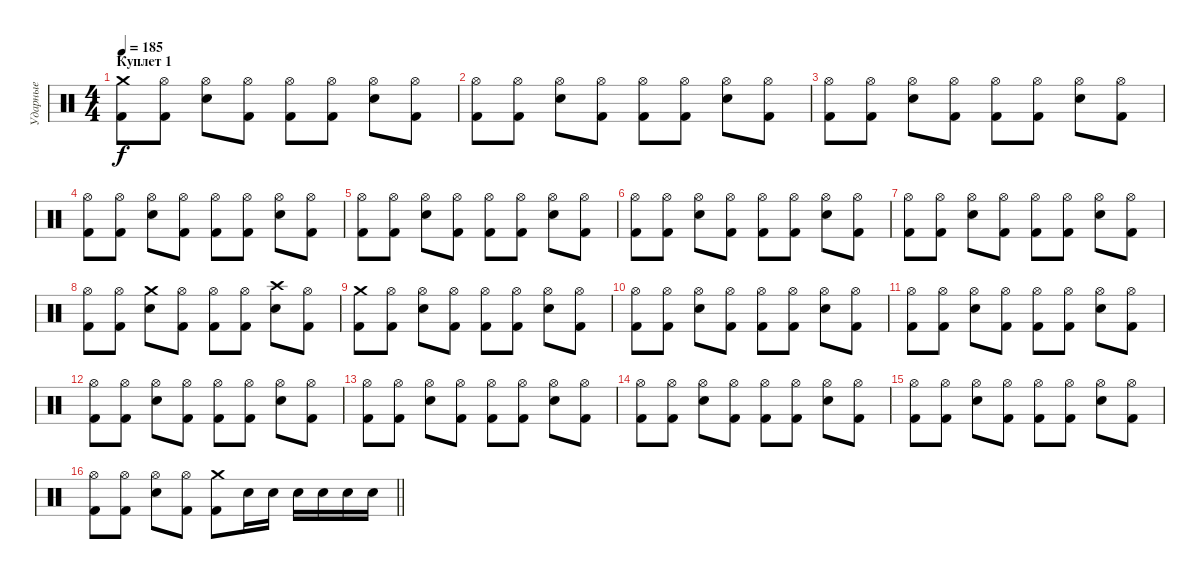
\track ("Ударные" "Ударные") {instrument percussion}
\staff {score}
\articulation defaults
\ts (4 4)
\section ("" "Куплет 1")
\tempo 185
\clef neutral
\ks c
("Crash medium (hit)" "Kick (hit) 2").8{dy f} ("Hi-Hat (open)" "Kick (hit) 2").8 ("Hi-Hat (open)" "Electric Snare (hit)").8 ("Hi-Hat (open)" "Kick (hit) 2").8 ("Hi-Hat (open)" "Kick (hit) 2").8 ("Hi-Hat (open)" "Kick (hit) 2").8 ("Hi-Hat (open)" "Electric Snare (hit)").8 ("Hi-Hat (open)" "Kick (hit) 2").8 |
("Hi-Hat (open)" "Kick (hit) 2").8 ("Hi-Hat (open)" "Kick (hit) 2").8 ("Hi-Hat (open)" "Electric Snare (hit)").8 ("Hi-Hat (open)" "Kick (hit) 2").8 ("Hi-Hat (open)" "Kick (hit) 2").8 ("Hi-Hat (open)" "Kick (hit) 2").8 ("Hi-Hat (open)" "Electric Snare (hit)").8 ("Hi-Hat (open)" "Kick (hit) 2").8 |
("Hi-Hat (open)" "Kick (hit) 2").8 ("Hi-Hat (open)" "Kick (hit) 2").8 ("Hi-Hat (open)" "Electric Snare (hit)").8 ("Hi-Hat (open)" "Kick (hit) 2").8 ("Hi-Hat (open)" "Kick (hit) 2").8 ("Hi-Hat (open)" "Kick (hit) 2").8 ("Hi-Hat (open)" "Electric Snare (hit)").8 ("Hi-Hat (open)" "Kick (hit) 2").8 |
("Hi-Hat (open)" "Kick (hit) 2").8 ("Hi-Hat (open)" "Kick (hit) 2").8 ("Hi-Hat (open)" "Electric Snare (hit)").8 ("Hi-Hat (open)" "Kick (hit) 2").8 ("Hi-Hat (open)" "Kick (hit) 2").8 ("Hi-Hat (open)" "Kick (hit) 2").8 ("Hi-Hat (open)" "Electric Snare (hit)").8 ("Hi-Hat (open)" "Kick (hit) 2").8 |
("Hi-Hat (open)" "Kick (hit) 2").8 ("Hi-Hat (open)" "Kick (hit) 2").8 ("Hi-Hat (open)" "Electric Snare (hit)").8 ("Hi-Hat (open)" "Kick (hit) 2").8 ("Hi-Hat (open)" "Kick (hit) 2").8 ("Hi-Hat (open)" "Kick (hit) 2").8 ("Hi-Hat (open)" "Electric Snare (hit)").8 ("Hi-Hat (open)" "Kick (hit) 2").8 |
("Hi-Hat (open)" "Kick (hit) 2").8 ("Hi-Hat (open)" "Kick (hit) 2").8 ("Hi-Hat (open)" "Electric Snare (hit)").8 ("Hi-Hat (open)" "Kick (hit) 2").8 ("Hi-Hat (open)" "Kick (hit) 2").8 ("Hi-Hat (open)" "Kick (hit) 2").8 ("Hi-Hat (open)" "Electric Snare (hit)").8 ("Hi-Hat (open)" "Kick (hit) 2").8 |
("Hi-Hat (open)" "Kick (hit) 2").8 ("Hi-Hat (open)" "Kick (hit) 2").8 ("Hi-Hat (open)" "Electric Snare (hit)").8 ("Hi-Hat (open)" "Kick (hit) 2").8 ("Hi-Hat (open)" "Kick (hit) 2").8 ("Hi-Hat (open)" "Kick (hit) 2").8 ("Hi-Hat (open)" "Electric Snare (hit)").8 ("Hi-Hat (open)" "Kick (hit) 2").8 |
("Hi-Hat (open)" "Kick (hit) 2").8 ("Hi-Hat (open)" "Kick (hit) 2").8 ("Crash medium (hit)" "Electric Snare (hit)").8 ("Hi-Hat (open)" "Kick (hit) 2").8 ("Hi-Hat (open)" "Kick (hit) 2").8 ("Hi-Hat (open)" "Kick (hit) 2").8 ("Crash high (hit)" "Electric Snare (hit)").8 ("Hi-Hat (open)" "Kick (hit) 2").8 |
("Crash medium (hit)" "Kick (hit) 2").8 ("Hi-Hat (open)" "Kick (hit) 2").8 ("Hi-Hat (open)" "Electric Snare (hit)").8 ("Hi-Hat (open)" "Kick (hit) 2").8 ("Hi-Hat (open)" "Kick (hit) 2").8 ("Hi-Hat (open)" "Kick (hit) 2").8 ("Hi-Hat (open)" "Electric Snare (hit)").8 ("Hi-Hat (open)" "Kick (hit) 2").8 |
("Hi-Hat (open)" "Kick (hit) 2").8 ("Hi-Hat (open)" "Kick (hit) 2").8 ("Hi-Hat (open)" "Electric Snare (hit)").8 ("Hi-Hat (open)" "Kick (hit) 2").8 ("Hi-Hat (open)" "Kick (hit) 2").8 ("Hi-Hat (open)" "Kick (hit) 2").8 ("Hi-Hat (open)" "Electric Snare (hit)").8 ("Hi-Hat (open)" "Kick (hit) 2").8 |
("Hi-Hat (open)" "Kick (hit) 2").8 ("Hi-Hat (open)" "Kick (hit) 2").8 ("Hi-Hat (open)" "Electric Snare (hit)").8 ("Hi-Hat (open)" "Kick (hit) 2").8 ("Hi-Hat (open)" "Kick (hit) 2").8 ("Hi-Hat (open)" "Kick (hit) 2").8 ("Hi-Hat (open)" "Electric Snare (hit)").8 ("Hi-Hat (open)" "Kick (hit) 2").8 |
("Hi-Hat (open)" "Kick (hit) 2").8 ("Hi-Hat (open)" "Kick (hit) 2").8 ("Hi-Hat (open)" "Electric Snare (hit)").8 ("Hi-Hat (open)" "Kick (hit) 2").8 ("Hi-Hat (open)" "Kick (hit) 2").8 ("Hi-Hat (open)" "Kick (hit) 2").8 ("Hi-Hat (open)" "Electric Snare (hit)").8 ("Hi-Hat (open)" "Kick (hit) 2").8 |
("Hi-Hat (open)" "Kick (hit) 2").8 ("Hi-Hat (open)" "Kick (hit) 2").8 ("Hi-Hat (open)" "Electric Snare (hit)").8 ("Hi-Hat (open)" "Kick (hit) 2").8 ("Hi-Hat (open)" "Kick (hit) 2").8 ("Hi-Hat (open)" "Kick (hit) 2").8 ("Hi-Hat (open)" "Electric Snare (hit)").8 ("Hi-Hat (open)" "Kick (hit) 2").8 |
("Hi-Hat (open)" "Kick (hit) 2").8 ("Hi-Hat (open)" "Kick (hit) 2").8 ("Hi-Hat (open)" "Electric Snare (hit)").8 ("Hi-Hat (open)" "Kick (hit) 2").8 ("Hi-Hat (open)" "Kick (hit) 2").8 ("Hi-Hat (open)" "Kick (hit) 2").8 ("Hi-Hat (open)" "Electric Snare (hit)").8 ("Hi-Hat (open)" "Kick (hit) 2").8 |
("Hi-Hat (open)" "Kick (hit) 2").8 ("Hi-Hat (open)" "Kick (hit) 2").8 ("Hi-Hat (open)" "Electric Snare (hit)").8 ("Hi-Hat (open)" "Kick (hit) 2").8 ("Hi-Hat (open)" "Kick (hit) 2").8 ("Hi-Hat (open)" "Kick (hit) 2").8 ("Hi-Hat (open)" "Electric Snare (hit)").8 ("Hi-Hat (open)" "Kick (hit) 2").8 |
\barLineRight lightlight
("Hi-Hat (open)" "Kick (hit) 2").8 ("Hi-Hat (open)" "Kick (hit) 2").8 ("Hi-Hat (open)" "Electric Snare (hit)").8 ("Hi-Hat (open)" "Kick (hit) 2").8 ("Crash medium (hit)" "Kick (hit) 2").8 "Electric Snare (hit)".16 "Electric Snare (hit)".16 "Electric Snare (hit)".16 "Electric Snare (hit)".16 "Electric Snare (hit)".16 "Electric Snare (hit)".16
